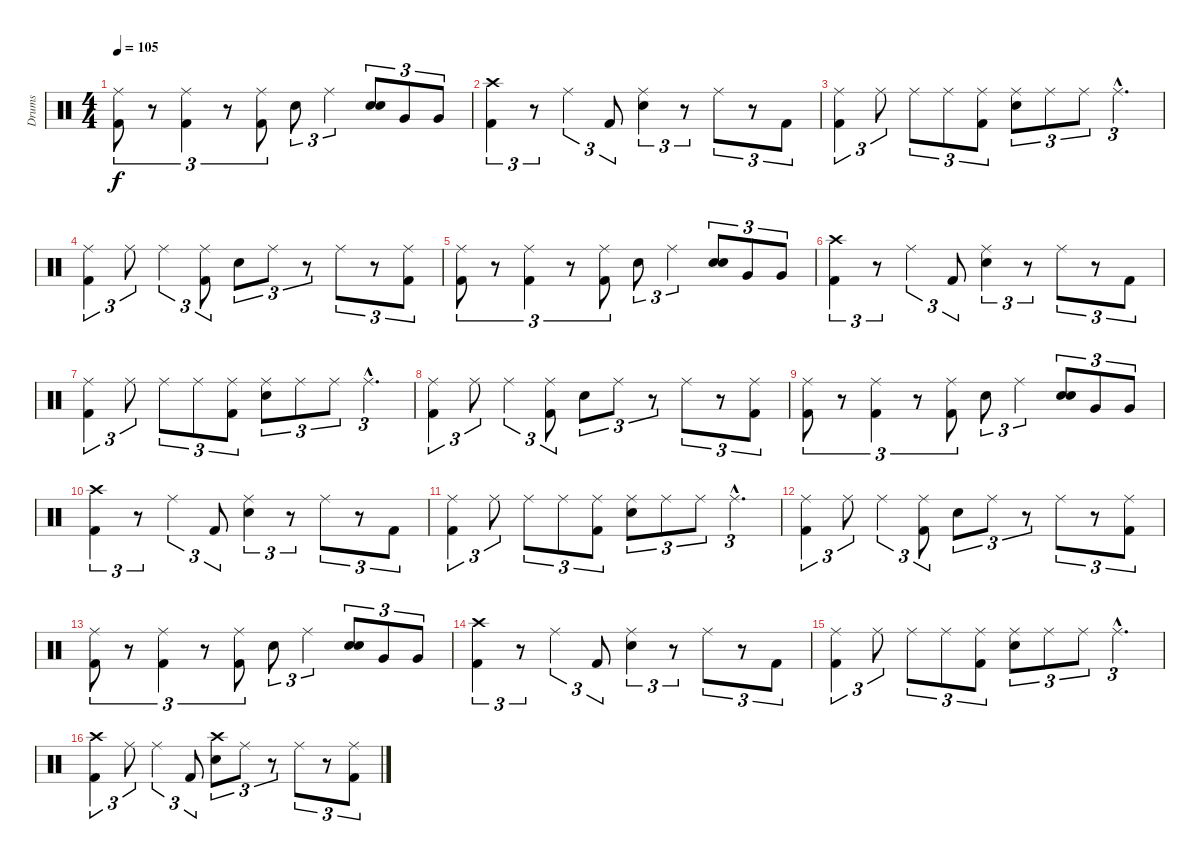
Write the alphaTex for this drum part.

\track ("Drums" "Drums") {instrument percussion}
\staff {score}
\articulation defaults
\ts (4 4)
\tempo 105
\clef neutral
\ks c
("Ride (middle)" "Kick (hit) 2").8{tu (3 2) dy f} r.8{tu (3 2)} ("Ride (middle)" "Kick (hit) 2").4{tu (3 2)} r.8{tu (3 2)} ("Ride (middle)" "Kick (hit) 2").8{tu (3 2)} "Snare (hit) 2".8{tu (3 2)} "Ride (middle)".4{tu (3 2)} ("Snare (hit) 2" "Snare (hit) 2").8{tu (3 2)} "Very Low Tom (hit)".8{tu (3 2)} "Very Low Tom (hit)".8{tu (3 2)} |
("Crash high (hit)" "Kick (hit) 2").4{tu (3 2)} r.8{tu (3 2)} "Ride (middle)".4{tu (3 2)} "Kick (hit) 2".8{tu (3 2)} ("Ride (middle)" "Snare (hit) 2").4{tu (3 2)} r.8{tu (3 2)} "Ride (middle)".8{tu (3 2)} r.8{tu (3 2)} "Kick (hit) 2".8{tu (3 2)} |
("Ride (middle)" "Kick (hit) 2").4{tu (3 2)} "Ride (middle)".8{tu (3 2)} "Ride (middle)".8{tu (3 2)} "Ride (middle)".8{tu (3 2)} ("Ride (middle)" "Kick (hit) 2").8{tu (3 2)} ("Ride (middle)" "Snare (hit) 2").8{tu (3 2)} "Ride (middle)".8{tu (3 2)} "Ride (middle)".8{tu (3 2)} "Ride (middle)"{hac}.4{d tu (3 2)} |
("Ride (middle)" "Kick (hit) 2").4{tu (3 2)} "Ride (middle)".8{tu (3 2)} "Ride (middle)".4{tu (3 2)} ("Ride (middle)" "Kick (hit) 2").8{tu (3 2)} "Snare (hit) 2".8{tu (3 2)} "Ride (middle)".8{tu (3 2)} r.8{tu (3 2)} "Ride (middle)".8{tu (3 2)} r.8{tu (3 2)} ("Ride (middle)" "Kick (hit) 2").8{tu (3 2)} |
("Ride (middle)" "Kick (hit) 2").8{tu (3 2)} r.8{tu (3 2)} ("Ride (middle)" "Kick (hit) 2").4{tu (3 2)} r.8{tu (3 2)} ("Ride (middle)" "Kick (hit) 2").8{tu (3 2)} "Snare (hit) 2".8{tu (3 2)} "Ride (middle)".4{tu (3 2)} ("Snare (hit) 2" "Snare (hit) 2").8{tu (3 2)} "Very Low Tom (hit)".8{tu (3 2)} "Very Low Tom (hit)".8{tu (3 2)} |
("Crash high (hit)" "Kick (hit) 2").4{tu (3 2)} r.8{tu (3 2)} "Ride (middle)".4{tu (3 2)} "Kick (hit) 2".8{tu (3 2)} ("Ride (middle)" "Snare (hit) 2").4{tu (3 2)} r.8{tu (3 2)} "Ride (middle)".8{tu (3 2)} r.8{tu (3 2)} "Kick (hit) 2".8{tu (3 2)} |
("Ride (middle)" "Kick (hit) 2").4{tu (3 2)} "Ride (middle)".8{tu (3 2)} "Ride (middle)".8{tu (3 2)} "Ride (middle)".8{tu (3 2)} ("Ride (middle)" "Kick (hit) 2").8{tu (3 2)} ("Ride (middle)" "Snare (hit) 2").8{tu (3 2)} "Ride (middle)".8{tu (3 2)} "Ride (middle)".8{tu (3 2)} "Ride (middle)"{hac}.4{d tu (3 2)} |
("Ride (middle)" "Kick (hit) 2").4{tu (3 2)} "Ride (middle)".8{tu (3 2)} "Ride (middle)".4{tu (3 2)} ("Ride (middle)" "Kick (hit) 2").8{tu (3 2)} "Snare (hit) 2".8{tu (3 2)} "Ride (middle)".8{tu (3 2)} r.8{tu (3 2)} "Ride (middle)".8{tu (3 2)} r.8{tu (3 2)} ("Ride (middle)" "Kick (hit) 2").8{tu (3 2)} |
("Ride (middle)" "Kick (hit) 2").8{tu (3 2)} r.8{tu (3 2)} ("Ride (middle)" "Kick (hit) 2").4{tu (3 2)} r.8{tu (3 2)} ("Ride (middle)" "Kick (hit) 2").8{tu (3 2)} "Snare (hit) 2".8{tu (3 2)} "Ride (middle)".4{tu (3 2)} ("Snare (hit) 2" "Snare (hit) 2").8{tu (3 2)} "Very Low Tom (hit)".8{tu (3 2)} "Very Low Tom (hit)".8{tu (3 2)} |
("Crash high (hit)" "Kick (hit) 2").4{tu (3 2)} r.8{tu (3 2)} "Ride (middle)".4{tu (3 2)} "Kick (hit) 2".8{tu (3 2)} ("Ride (middle)" "Snare (hit) 2").4{tu (3 2)} r.8{tu (3 2)} "Ride (middle)".8{tu (3 2)} r.8{tu (3 2)} "Kick (hit) 2".8{tu (3 2)} |
("Ride (middle)" "Kick (hit) 2").4{tu (3 2)} "Ride (middle)".8{tu (3 2)} "Ride (middle)".8{tu (3 2)} "Ride (middle)".8{tu (3 2)} ("Ride (middle)" "Kick (hit) 2").8{tu (3 2)} ("Ride (middle)" "Snare (hit) 2").8{tu (3 2)} "Ride (middle)".8{tu (3 2)} "Ride (middle)".8{tu (3 2)} "Ride (middle)"{hac}.4{d tu (3 2)} |
("Ride (middle)" "Kick (hit) 2").4{tu (3 2)} "Ride (middle)".8{tu (3 2)} "Ride (middle)".4{tu (3 2)} ("Ride (middle)" "Kick (hit) 2").8{tu (3 2)} "Snare (hit) 2".8{tu (3 2)} "Ride (middle)".8{tu (3 2)} r.8{tu (3 2)} "Ride (middle)".8{tu (3 2)} r.8{tu (3 2)} ("Ride (middle)" "Kick (hit) 2").8{tu (3 2)} |
("Ride (middle)" "Kick (hit) 2").8{tu (3 2)} r.8{tu (3 2)} ("Ride (middle)" "Kick (hit) 2").4{tu (3 2)} r.8{tu (3 2)} ("Ride (middle)" "Kick (hit) 2").8{tu (3 2)} "Snare (hit) 2".8{tu (3 2)} "Ride (middle)".4{tu (3 2)} ("Snare (hit) 2" "Snare (hit) 2").8{tu (3 2)} "Very Low Tom (hit)".8{tu (3 2)} "Very Low Tom (hit)".8{tu (3 2)} |
("Crash high (hit)" "Kick (hit) 2").4{tu (3 2)} r.8{tu (3 2)} "Ride (middle)".4{tu (3 2)} "Kick (hit) 2".8{tu (3 2)} ("Ride (middle)" "Snare (hit) 2").4{tu (3 2)} r.8{tu (3 2)} "Ride (middle)".8{tu (3 2)} r.8{tu (3 2)} "Kick (hit) 2".8{tu (3 2)} |
("Ride (middle)" "Kick (hit) 2").4{tu (3 2)} "Ride (middle)".8{tu (3 2)} "Ride (middle)".8{tu (3 2)} "Ride (middle)".8{tu (3 2)} ("Ride (middle)" "Kick (hit) 2").8{tu (3 2)} ("Ride (middle)" "Snare (hit) 2").8{tu (3 2)} "Ride (middle)".8{tu (3 2)} "Ride (middle)".8{tu (3 2)} "Ride (middle)"{hac}.4{d tu (3 2)} |
("Crash high (hit)" "Kick (hit) 2").4{tu (3 2)} "Ride (middle)".8{tu (3 2)} "Ride (middle)".4{tu (3 2)} "Kick (hit) 2".8{tu (3 2)} ("Crash high (hit)" "Snare (hit) 2").8{tu (3 2)} "Ride (middle)".8{tu (3 2)} r.8{tu (3 2)} "Ride (middle)".8{tu (3 2)} r.8{tu (3 2)} ("Ride (middle)" "Kick (hit) 2").8{tu (3 2)}
